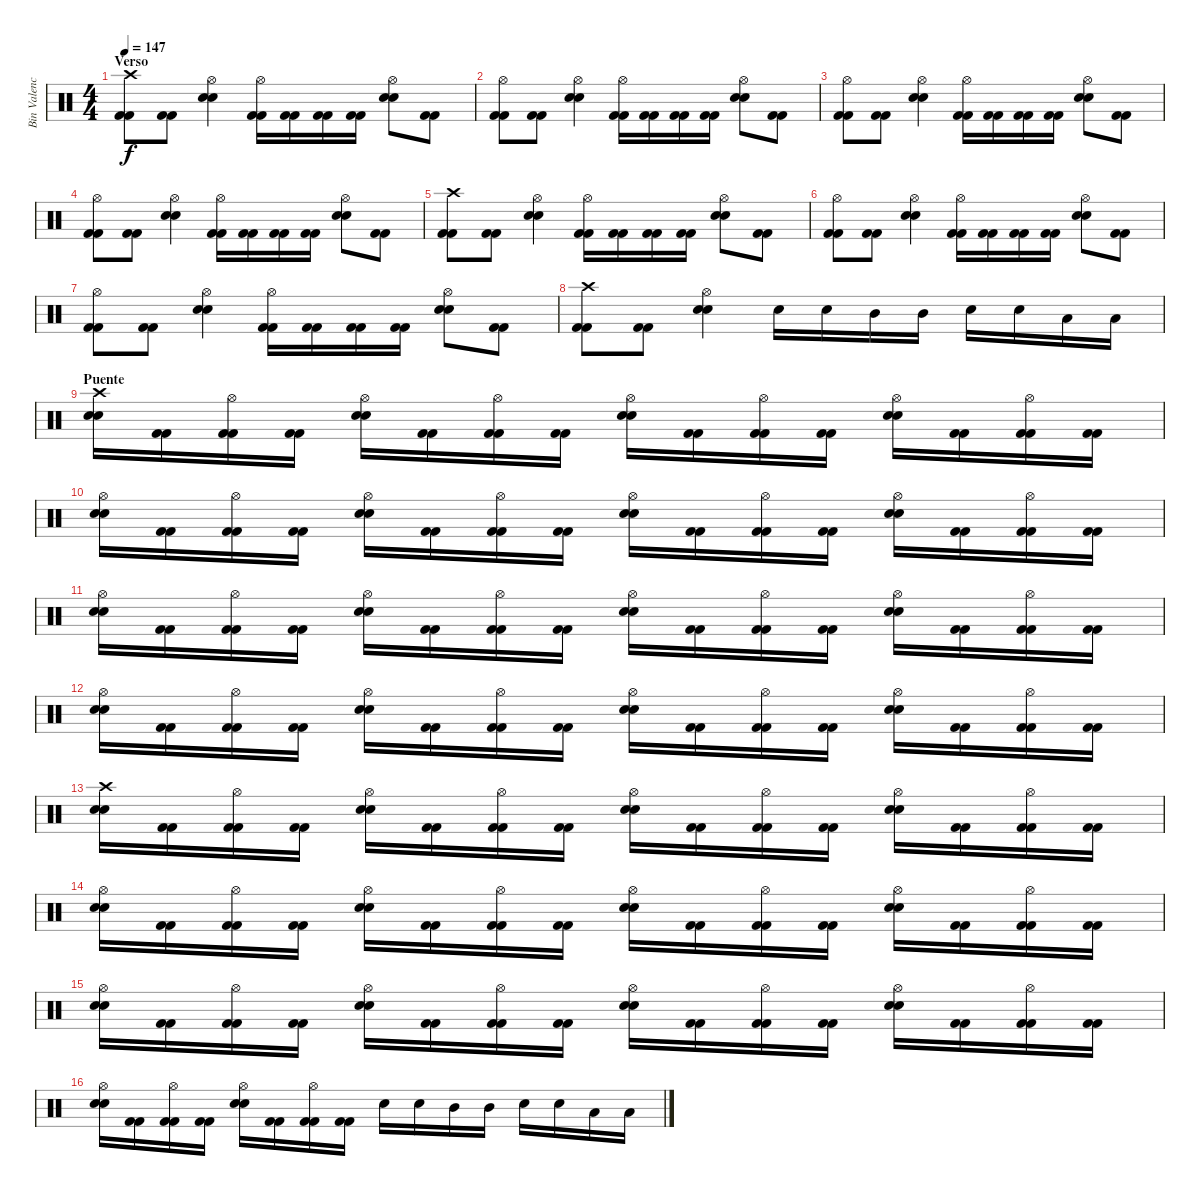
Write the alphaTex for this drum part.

\track ("Bin Valencia (Bateria)" "Bin Valenc") {instrument percussion}
\staff {score}
\articulation defaults
\ts (4 4)
\section ("" "Verso")
\tempo 147
\clef neutral
\ks c
("Crash high (hit)" "Kick (hit) 2" "Kick (hit) 2").8{dy f} ("Kick (hit) 2" "Kick (hit) 2").8 ("Hi-Hat (open)" "Snare (hit) 2" "Snare (hit) 2").4 ("Hi-Hat (open)" "Kick (hit) 2" "Kick (hit) 2").16 ("Kick (hit) 2" "Kick (hit) 2").16 ("Kick (hit) 2" "Kick (hit) 2").16 ("Kick (hit) 2" "Kick (hit) 2").16 ("Hi-Hat (open)" "Snare (hit) 2" "Snare (hit) 2").8 ("Kick (hit) 2" "Kick (hit) 2").8 |
("Hi-Hat (open)" "Kick (hit) 2" "Kick (hit) 2").8 ("Kick (hit) 2" "Kick (hit) 2").8 ("Hi-Hat (open)" "Snare (hit) 2" "Snare (hit) 2").4 ("Hi-Hat (open)" "Kick (hit) 2" "Kick (hit) 2").16 ("Kick (hit) 2" "Kick (hit) 2").16 ("Kick (hit) 2" "Kick (hit) 2").16 ("Kick (hit) 2" "Kick (hit) 2").16 ("Hi-Hat (open)" "Snare (hit) 2" "Snare (hit) 2").8 ("Kick (hit) 2" "Kick (hit) 2").8 |
("Hi-Hat (open)" "Kick (hit) 2" "Kick (hit) 2").8 ("Kick (hit) 2" "Kick (hit) 2").8 ("Hi-Hat (open)" "Snare (hit) 2" "Snare (hit) 2").4 ("Hi-Hat (open)" "Kick (hit) 2" "Kick (hit) 2").16 ("Kick (hit) 2" "Kick (hit) 2").16 ("Kick (hit) 2" "Kick (hit) 2").16 ("Kick (hit) 2" "Kick (hit) 2").16 ("Hi-Hat (open)" "Snare (hit) 2" "Snare (hit) 2").8 ("Kick (hit) 2" "Kick (hit) 2").8 |
("Hi-Hat (open)" "Kick (hit) 2" "Kick (hit) 2").8 ("Kick (hit) 2" "Kick (hit) 2").8 ("Hi-Hat (open)" "Snare (hit) 2" "Snare (hit) 2").4 ("Hi-Hat (open)" "Kick (hit) 2" "Kick (hit) 2").16 ("Kick (hit) 2" "Kick (hit) 2").16 ("Kick (hit) 2" "Kick (hit) 2").16 ("Kick (hit) 2" "Kick (hit) 2").16 ("Hi-Hat (open)" "Snare (hit) 2" "Snare (hit) 2").8 ("Kick (hit) 2" "Kick (hit) 2").8 |
("Crash high (hit)" "Kick (hit) 2" "Kick (hit) 2").8 ("Kick (hit) 2" "Kick (hit) 2").8 ("Hi-Hat (open)" "Snare (hit) 2" "Snare (hit) 2").4 ("Hi-Hat (open)" "Kick (hit) 2" "Kick (hit) 2").16 ("Kick (hit) 2" "Kick (hit) 2").16 ("Kick (hit) 2" "Kick (hit) 2").16 ("Kick (hit) 2" "Kick (hit) 2").16 ("Hi-Hat (open)" "Snare (hit) 2" "Snare (hit) 2").8 ("Kick (hit) 2" "Kick (hit) 2").8 |
("Hi-Hat (open)" "Kick (hit) 2" "Kick (hit) 2").8 ("Kick (hit) 2" "Kick (hit) 2").8 ("Hi-Hat (open)" "Snare (hit) 2" "Snare (hit) 2").4 ("Hi-Hat (open)" "Kick (hit) 2" "Kick (hit) 2").16 ("Kick (hit) 2" "Kick (hit) 2").16 ("Kick (hit) 2" "Kick (hit) 2").16 ("Kick (hit) 2" "Kick (hit) 2").16 ("Hi-Hat (open)" "Snare (hit) 2" "Snare (hit) 2").8 ("Kick (hit) 2" "Kick (hit) 2").8 |
("Hi-Hat (open)" "Kick (hit) 2" "Kick (hit) 2").8 ("Kick (hit) 2" "Kick (hit) 2").8 ("Hi-Hat (open)" "Snare (hit) 2" "Snare (hit) 2").4 ("Hi-Hat (open)" "Kick (hit) 2" "Kick (hit) 2").16 ("Kick (hit) 2" "Kick (hit) 2").16 ("Kick (hit) 2" "Kick (hit) 2").16 ("Kick (hit) 2" "Kick (hit) 2").16 ("Hi-Hat (open)" "Snare (hit) 2" "Snare (hit) 2").8 ("Kick (hit) 2" "Kick (hit) 2").8 |
("Crash high (hit)" "Kick (hit) 2" "Kick (hit) 2").8 ("Kick (hit) 2" "Kick (hit) 2").8 ("Hi-Hat (open)" "Snare (hit) 2" "Snare (hit) 2").4 "Snare (hit) 2".16 "Snare (hit) 2".16 "Mid Tom (hit)".16 "Mid Tom (hit)".16 "Snare (hit) 2".16 "Snare (hit) 2".16 "Low Tom (hit)".16 "Low Tom (hit)".16 |
\section ("" "Puente")
("Crash high (hit)" "Snare (hit) 2" "Snare (hit) 2").16 ("Kick (hit) 2" "Kick (hit) 2").16 ("Hi-Hat (open)" "Kick (hit) 2" "Kick (hit) 2").16 ("Kick (hit) 2" "Kick (hit) 2").16 ("Hi-Hat (open)" "Snare (hit) 2" "Snare (hit) 2").16 ("Kick (hit) 2" "Kick (hit) 2").16 ("Hi-Hat (open)" "Kick (hit) 2" "Kick (hit) 2").16 ("Kick (hit) 2" "Kick (hit) 2").16 ("Hi-Hat (open)" "Snare (hit) 2" "Snare (hit) 2").16 ("Kick (hit) 2" "Kick (hit) 2").16 ("Hi-Hat (open)" "Kick (hit) 2" "Kick (hit) 2").16 ("Kick (hit) 2" "Kick (hit) 2").16 ("Hi-Hat (open)" "Snare (hit) 2" "Snare (hit) 2").16 ("Kick (hit) 2" "Kick (hit) 2").16 ("Hi-Hat (open)" "Kick (hit) 2" "Kick (hit) 2").16 ("Kick (hit) 2" "Kick (hit) 2").16 |
("Hi-Hat (open)" "Snare (hit) 2" "Snare (hit) 2").16 ("Kick (hit) 2" "Kick (hit) 2").16 ("Hi-Hat (open)" "Kick (hit) 2" "Kick (hit) 2").16 ("Kick (hit) 2" "Kick (hit) 2").16 ("Hi-Hat (open)" "Snare (hit) 2" "Snare (hit) 2").16 ("Kick (hit) 2" "Kick (hit) 2").16 ("Hi-Hat (open)" "Kick (hit) 2" "Kick (hit) 2").16 ("Kick (hit) 2" "Kick (hit) 2").16 ("Hi-Hat (open)" "Snare (hit) 2" "Snare (hit) 2").16 ("Kick (hit) 2" "Kick (hit) 2").16 ("Hi-Hat (open)" "Kick (hit) 2" "Kick (hit) 2").16 ("Kick (hit) 2" "Kick (hit) 2").16 ("Hi-Hat (open)" "Snare (hit) 2" "Snare (hit) 2").16 ("Kick (hit) 2" "Kick (hit) 2").16 ("Hi-Hat (open)" "Kick (hit) 2" "Kick (hit) 2").16 ("Kick (hit) 2" "Kick (hit) 2").16 |
("Hi-Hat (open)" "Snare (hit) 2" "Snare (hit) 2").16 ("Kick (hit) 2" "Kick (hit) 2").16 ("Hi-Hat (open)" "Kick (hit) 2" "Kick (hit) 2").16 ("Kick (hit) 2" "Kick (hit) 2").16 ("Hi-Hat (open)" "Snare (hit) 2" "Snare (hit) 2").16 ("Kick (hit) 2" "Kick (hit) 2").16 ("Hi-Hat (open)" "Kick (hit) 2" "Kick (hit) 2").16 ("Kick (hit) 2" "Kick (hit) 2").16 ("Hi-Hat (open)" "Snare (hit) 2" "Snare (hit) 2").16 ("Kick (hit) 2" "Kick (hit) 2").16 ("Hi-Hat (open)" "Kick (hit) 2" "Kick (hit) 2").16 ("Kick (hit) 2" "Kick (hit) 2").16 ("Hi-Hat (open)" "Snare (hit) 2" "Snare (hit) 2").16 ("Kick (hit) 2" "Kick (hit) 2").16 ("Hi-Hat (open)" "Kick (hit) 2" "Kick (hit) 2").16 ("Kick (hit) 2" "Kick (hit) 2").16 |
("Hi-Hat (open)" "Snare (hit) 2" "Snare (hit) 2").16 ("Kick (hit) 2" "Kick (hit) 2").16 ("Hi-Hat (open)" "Kick (hit) 2" "Kick (hit) 2").16 ("Kick (hit) 2" "Kick (hit) 2").16 ("Hi-Hat (open)" "Snare (hit) 2" "Snare (hit) 2").16 ("Kick (hit) 2" "Kick (hit) 2").16 ("Hi-Hat (open)" "Kick (hit) 2" "Kick (hit) 2").16 ("Kick (hit) 2" "Kick (hit) 2").16 ("Hi-Hat (open)" "Snare (hit) 2" "Snare (hit) 2").16 ("Kick (hit) 2" "Kick (hit) 2").16 ("Hi-Hat (open)" "Kick (hit) 2" "Kick (hit) 2").16 ("Kick (hit) 2" "Kick (hit) 2").16 ("Hi-Hat (open)" "Snare (hit) 2" "Snare (hit) 2").16 ("Kick (hit) 2" "Kick (hit) 2").16 ("Hi-Hat (open)" "Kick (hit) 2" "Kick (hit) 2").16 ("Kick (hit) 2" "Kick (hit) 2").16 |
("Crash high (hit)" "Snare (hit) 2" "Snare (hit) 2").16 ("Kick (hit) 2" "Kick (hit) 2").16 ("Hi-Hat (open)" "Kick (hit) 2" "Kick (hit) 2").16 ("Kick (hit) 2" "Kick (hit) 2").16 ("Hi-Hat (open)" "Snare (hit) 2" "Snare (hit) 2").16 ("Kick (hit) 2" "Kick (hit) 2").16 ("Hi-Hat (open)" "Kick (hit) 2" "Kick (hit) 2").16 ("Kick (hit) 2" "Kick (hit) 2").16 ("Hi-Hat (open)" "Snare (hit) 2" "Snare (hit) 2").16 ("Kick (hit) 2" "Kick (hit) 2").16 ("Hi-Hat (open)" "Kick (hit) 2" "Kick (hit) 2").16 ("Kick (hit) 2" "Kick (hit) 2").16 ("Hi-Hat (open)" "Snare (hit) 2" "Snare (hit) 2").16 ("Kick (hit) 2" "Kick (hit) 2").16 ("Hi-Hat (open)" "Kick (hit) 2" "Kick (hit) 2").16 ("Kick (hit) 2" "Kick (hit) 2").16 |
("Hi-Hat (open)" "Snare (hit) 2" "Snare (hit) 2").16 ("Kick (hit) 2" "Kick (hit) 2").16 ("Hi-Hat (open)" "Kick (hit) 2" "Kick (hit) 2").16 ("Kick (hit) 2" "Kick (hit) 2").16 ("Hi-Hat (open)" "Snare (hit) 2" "Snare (hit) 2").16 ("Kick (hit) 2" "Kick (hit) 2").16 ("Hi-Hat (open)" "Kick (hit) 2" "Kick (hit) 2").16 ("Kick (hit) 2" "Kick (hit) 2").16 ("Hi-Hat (open)" "Snare (hit) 2" "Snare (hit) 2").16 ("Kick (hit) 2" "Kick (hit) 2").16 ("Hi-Hat (open)" "Kick (hit) 2" "Kick (hit) 2").16 ("Kick (hit) 2" "Kick (hit) 2").16 ("Hi-Hat (open)" "Snare (hit) 2" "Snare (hit) 2").16 ("Kick (hit) 2" "Kick (hit) 2").16 ("Hi-Hat (open)" "Kick (hit) 2" "Kick (hit) 2").16 ("Kick (hit) 2" "Kick (hit) 2").16 |
("Hi-Hat (open)" "Snare (hit) 2" "Snare (hit) 2").16 ("Kick (hit) 2" "Kick (hit) 2").16 ("Hi-Hat (open)" "Kick (hit) 2" "Kick (hit) 2").16 ("Kick (hit) 2" "Kick (hit) 2").16 ("Hi-Hat (open)" "Snare (hit) 2" "Snare (hit) 2").16 ("Kick (hit) 2" "Kick (hit) 2").16 ("Hi-Hat (open)" "Kick (hit) 2" "Kick (hit) 2").16 ("Kick (hit) 2" "Kick (hit) 2").16 ("Hi-Hat (open)" "Snare (hit) 2" "Snare (hit) 2").16 ("Kick (hit) 2" "Kick (hit) 2").16 ("Hi-Hat (open)" "Kick (hit) 2" "Kick (hit) 2").16 ("Kick (hit) 2" "Kick (hit) 2").16 ("Hi-Hat (open)" "Snare (hit) 2" "Snare (hit) 2").16 ("Kick (hit) 2" "Kick (hit) 2").16 ("Hi-Hat (open)" "Kick (hit) 2" "Kick (hit) 2").16 ("Kick (hit) 2" "Kick (hit) 2").16 |
("Hi-Hat (open)" "Snare (hit) 2" "Snare (hit) 2").16 ("Kick (hit) 2" "Kick (hit) 2").16 ("Hi-Hat (open)" "Kick (hit) 2" "Kick (hit) 2").16 ("Kick (hit) 2" "Kick (hit) 2").16 ("Hi-Hat (open)" "Snare (hit) 2" "Snare (hit) 2").16 ("Kick (hit) 2" "Kick (hit) 2").16 ("Hi-Hat (open)" "Kick (hit) 2" "Kick (hit) 2").16 ("Kick (hit) 2" "Kick (hit) 2").16 "Snare (hit) 2".16 "Snare (hit) 2".16 "Mid Tom (hit)".16 "Mid Tom (hit)".16 "Snare (hit) 2".16 "Snare (hit) 2".16 "Low Tom (hit)".16 "Low Tom (hit)".16
